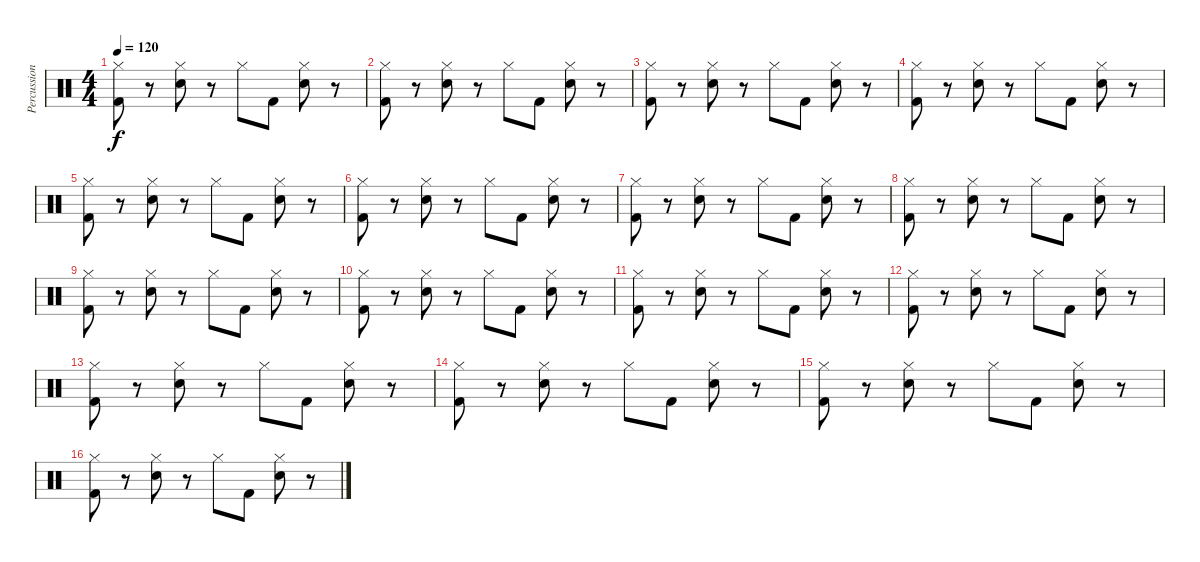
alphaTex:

\track ("Percussion" "Percussion") {instrument percussion}
\staff {score}
\articulation defaults
\ts (4 4)
\tempo 120
\clef neutral
\ks c
("Hi-Hat (closed)" "Kick (hit) 2").8{dy f} r.8 ("Hi-Hat (closed)" "Hand Clap (hit)").8 r.8 "Hi-Hat (closed)".8 "Kick (hit) 2".8 ("Hi-Hat (closed)" "Hand Clap (hit)").8 r.8 |
("Hi-Hat (closed)" "Kick (hit) 2").8 r.8 ("Hi-Hat (closed)" "Hand Clap (hit)").8 r.8 "Hi-Hat (closed)".8 "Kick (hit) 2".8 ("Hi-Hat (closed)" "Hand Clap (hit)").8 r.8 |
("Hi-Hat (closed)" "Kick (hit) 2").8 r.8 ("Hi-Hat (closed)" "Hand Clap (hit)").8 r.8 "Hi-Hat (closed)".8 "Kick (hit) 2".8 ("Hi-Hat (closed)" "Hand Clap (hit)").8 r.8 |
("Hi-Hat (closed)" "Kick (hit) 2").8 r.8 ("Hi-Hat (closed)" "Hand Clap (hit)").8 r.8 "Hi-Hat (closed)".8 "Kick (hit) 2".8 ("Hi-Hat (closed)" "Hand Clap (hit)").8 r.8 |
("Hi-Hat (closed)" "Kick (hit) 2").8 r.8 ("Hi-Hat (closed)" "Hand Clap (hit)").8 r.8 "Hi-Hat (closed)".8 "Kick (hit) 2".8 ("Hi-Hat (closed)" "Hand Clap (hit)").8 r.8 |
("Hi-Hat (closed)" "Kick (hit) 2").8 r.8 ("Hi-Hat (closed)" "Hand Clap (hit)").8 r.8 "Hi-Hat (closed)".8 "Kick (hit) 2".8 ("Hi-Hat (closed)" "Hand Clap (hit)").8 r.8 |
("Hi-Hat (closed)" "Kick (hit) 2").8 r.8 ("Hi-Hat (closed)" "Hand Clap (hit)").8 r.8 "Hi-Hat (closed)".8 "Kick (hit) 2".8 ("Hi-Hat (closed)" "Hand Clap (hit)").8 r.8 |
("Hi-Hat (closed)" "Kick (hit) 2").8 r.8 ("Hi-Hat (closed)" "Hand Clap (hit)").8 r.8 "Hi-Hat (closed)".8 "Kick (hit) 2".8 ("Hi-Hat (closed)" "Hand Clap (hit)").8 r.8 |
("Hi-Hat (closed)" "Kick (hit) 2").8 r.8 ("Hi-Hat (closed)" "Hand Clap (hit)").8 r.8 "Hi-Hat (closed)".8 "Kick (hit) 2".8 ("Hi-Hat (closed)" "Hand Clap (hit)").8 r.8 |
("Hi-Hat (closed)" "Kick (hit) 2").8 r.8 ("Hi-Hat (closed)" "Hand Clap (hit)").8 r.8 "Hi-Hat (closed)".8 "Kick (hit) 2".8 ("Hi-Hat (closed)" "Hand Clap (hit)").8 r.8 |
("Hi-Hat (closed)" "Kick (hit) 2").8 r.8 ("Hi-Hat (closed)" "Hand Clap (hit)").8 r.8 "Hi-Hat (closed)".8 "Kick (hit) 2".8 ("Hi-Hat (closed)" "Hand Clap (hit)").8 r.8 |
("Hi-Hat (closed)" "Kick (hit) 2").8 r.8 ("Hi-Hat (closed)" "Hand Clap (hit)").8 r.8 "Hi-Hat (closed)".8 "Kick (hit) 2".8 ("Hi-Hat (closed)" "Hand Clap (hit)").8 r.8 |
("Hi-Hat (closed)" "Kick (hit) 2").8 r.8 ("Hi-Hat (closed)" "Hand Clap (hit)").8 r.8 "Hi-Hat (closed)".8 "Kick (hit) 2".8 ("Hi-Hat (closed)" "Hand Clap (hit)").8 r.8 |
("Hi-Hat (closed)" "Kick (hit) 2").8 r.8 ("Hi-Hat (closed)" "Hand Clap (hit)").8 r.8 "Hi-Hat (closed)".8 "Kick (hit) 2".8 ("Hi-Hat (closed)" "Hand Clap (hit)").8 r.8 |
("Hi-Hat (closed)" "Kick (hit) 2").8 r.8 ("Hi-Hat (closed)" "Hand Clap (hit)").8 r.8 "Hi-Hat (closed)".8 "Kick (hit) 2".8 ("Hi-Hat (closed)" "Hand Clap (hit)").8 r.8 |
("Hi-Hat (closed)" "Kick (hit) 2").8 r.8 ("Hi-Hat (closed)" "Hand Clap (hit)").8 r.8 "Hi-Hat (closed)".8 "Kick (hit) 2".8 ("Hi-Hat (closed)" "Hand Clap (hit)").8 r.8
